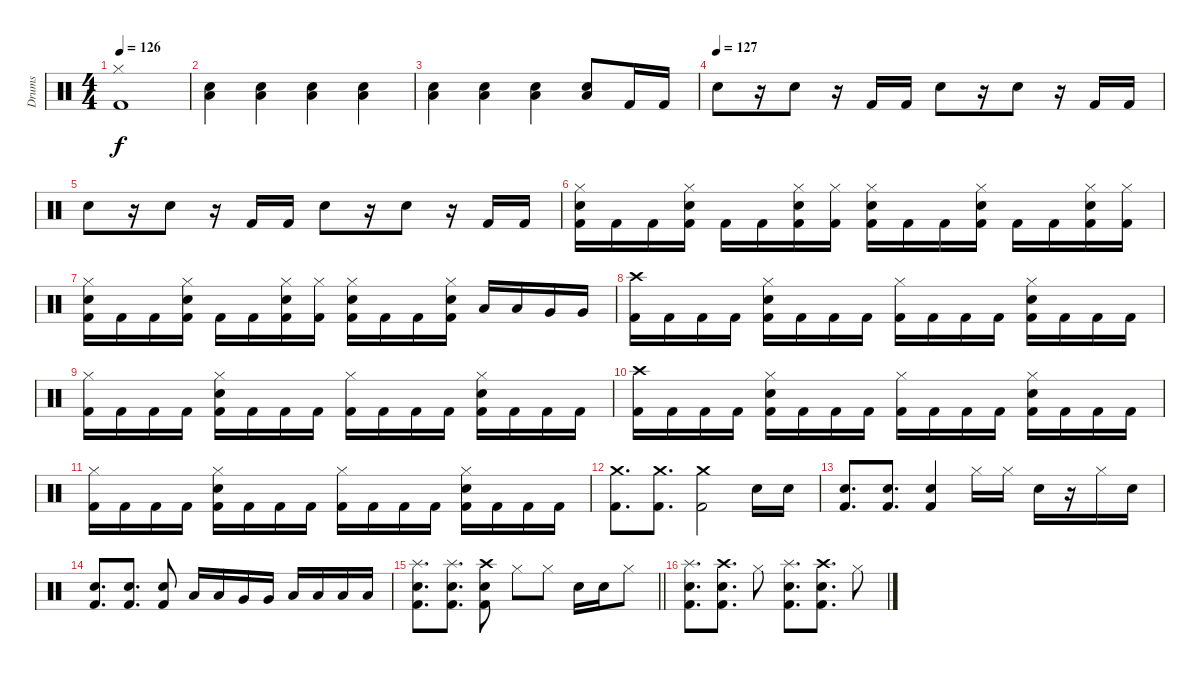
\track ("Drums" "Drums") {instrument percussion}
\staff {score}
\articulation defaults
\ts (4 4)
\tempo 126
\clef neutral
\ks c
("Hi-Hat (closed)" "Kick (hit) 2").1{dy f} |
("Low Tom (hit)" "Snare (hit) 2").4 ("Low Tom (hit)" "Snare (hit) 2").4 ("Low Tom (hit)" "Snare (hit) 2").4 ("Low Tom (hit)" "Snare (hit) 2").4 |
("Low Tom (hit)" "Snare (hit) 2").4 ("Low Tom (hit)" "Snare (hit) 2").4 ("Low Tom (hit)" "Snare (hit) 2").4 ("Low Tom (hit)" "Snare (hit) 2").8 "Kick (hit) 2".16 "Kick (hit) 2".16 |
\tempo (127)
"Snare (hit) 2".8 r.16 "Snare (hit) 2".8 r.16 "Kick (hit) 2".16 "Kick (hit) 2".16 "Snare (hit) 2".8 r.16 "Snare (hit) 2".8 r.16 "Kick (hit) 2".16 "Kick (hit) 2".16 |
"Snare (hit) 2".8 r.16 "Snare (hit) 2".8 r.16 "Kick (hit) 2".16 "Kick (hit) 2".16 "Snare (hit) 2".8 r.16 "Snare (hit) 2".8 r.16 "Kick (hit) 2".16 "Kick (hit) 2".16 |
("Hi-Hat (closed)" "Snare (hit) 2" "Kick (hit) 2").16 "Kick (hit) 2".16 "Kick (hit) 2".16 ("Hi-Hat (closed)" "Snare (hit) 2" "Kick (hit) 2").16 "Kick (hit) 2".16 "Kick (hit) 2".16 ("Hi-Hat (closed)" "Snare (hit) 2" "Kick (hit) 2").16 ("Hi-Hat (closed)" "Kick (hit) 2").16 ("Hi-Hat (closed)" "Snare (hit) 2" "Kick (hit) 2").16 "Kick (hit) 2".16 "Kick (hit) 2".16 ("Hi-Hat (closed)" "Snare (hit) 2" "Kick (hit) 2").16 "Kick (hit) 2".16 "Kick (hit) 2".16 ("Hi-Hat (closed)" "Snare (hit) 2" "Kick (hit) 2").16 ("Hi-Hat (closed)" "Kick (hit) 2").16 |
("Hi-Hat (closed)" "Snare (hit) 2" "Kick (hit) 2").16 "Kick (hit) 2".16 "Kick (hit) 2".16 ("Hi-Hat (closed)" "Snare (hit) 2" "Kick (hit) 2").16 "Kick (hit) 2".16 "Kick (hit) 2".16 ("Hi-Hat (closed)" "Snare (hit) 2" "Kick (hit) 2").16 ("Hi-Hat (closed)" "Kick (hit) 2").16 ("Hi-Hat (closed)" "Snare (hit) 2" "Kick (hit) 2").16 "Kick (hit) 2".16 "Kick (hit) 2".16 ("Hi-Hat (closed)" "Snare (hit) 2" "Kick (hit) 2").16 "Low Tom (hit)".16 "Low Tom (hit)".16 "Very Low Tom (hit)".16 "Very Low Tom (hit)".16 |
("Crash high (hit)" "Kick (hit) 2").16 "Kick (hit) 2".16 "Kick (hit) 2".16 "Kick (hit) 2".16 ("Hi-Hat (closed)" "Snare (hit) 2" "Kick (hit) 2").16 "Kick (hit) 2".16 "Kick (hit) 2".16 "Kick (hit) 2".16 ("Hi-Hat (closed)" "Kick (hit) 2").16 "Kick (hit) 2".16 "Kick (hit) 2".16 "Kick (hit) 2".16 ("Hi-Hat (closed)" "Snare (hit) 2" "Kick (hit) 2").16 "Kick (hit) 2".16 "Kick (hit) 2".16 "Kick (hit) 2".16 |
("Hi-Hat (closed)" "Kick (hit) 2").16 "Kick (hit) 2".16 "Kick (hit) 2".16 "Kick (hit) 2".16 ("Hi-Hat (closed)" "Snare (hit) 2" "Kick (hit) 2").16 "Kick (hit) 2".16 "Kick (hit) 2".16 "Kick (hit) 2".16 ("Hi-Hat (closed)" "Kick (hit) 2").16 "Kick (hit) 2".16 "Kick (hit) 2".16 "Kick (hit) 2".16 ("Hi-Hat (closed)" "Snare (hit) 2" "Kick (hit) 2").16 "Kick (hit) 2".16 "Kick (hit) 2".16 "Kick (hit) 2".16 |
("Crash high (hit)" "Kick (hit) 2").16 "Kick (hit) 2".16 "Kick (hit) 2".16 "Kick (hit) 2".16 ("Hi-Hat (closed)" "Snare (hit) 2" "Kick (hit) 2").16 "Kick (hit) 2".16 "Kick (hit) 2".16 "Kick (hit) 2".16 ("Hi-Hat (closed)" "Kick (hit) 2").16 "Kick (hit) 2".16 "Kick (hit) 2".16 "Kick (hit) 2".16 ("Hi-Hat (closed)" "Snare (hit) 2" "Kick (hit) 2").16 "Kick (hit) 2".16 "Kick (hit) 2".16 "Kick (hit) 2".16 |
("Hi-Hat (closed)" "Kick (hit) 2").16 "Kick (hit) 2".16 "Kick (hit) 2".16 "Kick (hit) 2".16 ("Hi-Hat (closed)" "Snare (hit) 2" "Kick (hit) 2").16 "Kick (hit) 2".16 "Kick (hit) 2".16 "Kick (hit) 2".16 ("Hi-Hat (closed)" "Kick (hit) 2").16 "Kick (hit) 2".16 "Kick (hit) 2".16 "Kick (hit) 2".16 ("Hi-Hat (closed)" "Snare (hit) 2" "Kick (hit) 2").16 "Kick (hit) 2".16 "Kick (hit) 2".16 "Kick (hit) 2".16 |
("Crash medium (hit)" "Kick (hit) 2").8{d} ("Crash medium (hit)" "Kick (hit) 2").8{d} ("Crash medium (hit)" "Kick (hit) 2").2 "Snare (hit) 2".16 "Snare (hit) 2".16 |
("Snare (hit) 2" "Kick (hit) 2").8{d} ("Snare (hit) 2" "Kick (hit) 2").8{d} ("Snare (hit) 2" "Kick (hit) 2").4 "Hi-Hat (closed)".16 "Hi-Hat (closed)".16 "Snare (hit) 2".16 r.16 "Hi-Hat (closed)".16 "Snare (hit) 2".16 |
("Snare (hit) 2" "Kick (hit) 2").8{d} ("Snare (hit) 2" "Kick (hit) 2").8{d} ("Snare (hit) 2" "Kick (hit) 2").8 "Low Tom (hit)".16 "Low Tom (hit)".16 "Very Low Tom (hit)".16 "Very Low Tom (hit)".16 "Low Floor Tom (hit)".16 "Low Floor Tom (hit)".16 "Low Floor Tom (hit)".16 "Low Floor Tom (hit)".16 |
\barLineRight lightlight
("Splash (hit)" "Snare (hit) 2" "Kick (hit) 2").8{d} ("Splash (hit)" "Snare (hit) 2" "Kick (hit) 2").8{d} ("Crash high (hit)" "Snare (hit) 2" "Kick (hit) 2").8 "Hi-Hat (closed)".8 "Hi-Hat (closed)".8 "Snare (hit) 2".16 "Snare (hit) 2".16 "Hi-Hat (closed)".8 |
\section ("" "")
("Splash (hit)" "Snare (hit) 2" "Kick (hit) 2").8{d} ("Crash high (hit)" "Snare (hit) 2" "Kick (hit) 2").8{d} "Hi-Hat (closed)".8 ("Splash (hit)" "Snare (hit) 2" "Kick (hit) 2").8{d} ("Crash high (hit)" "Snare (hit) 2" "Kick (hit) 2").8{d} "Hi-Hat (closed)".8
